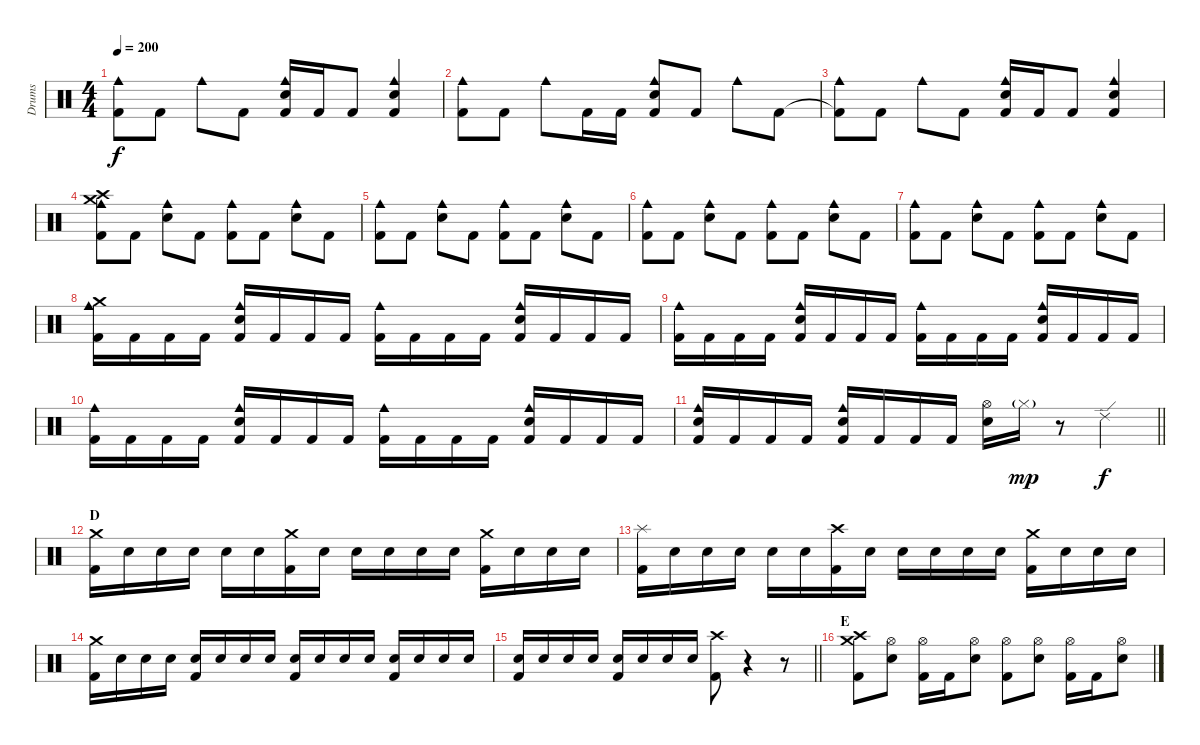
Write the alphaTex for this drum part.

\track ("Drums" "Drums") {instrument percussion}
\staff {score}
\articulation defaults
\ts (4 4)
\tempo 200
\clef neutral
\ks c
("Kick (hit) 2"{t} "Cowbell medium (hit)").8{dy f} "Kick (hit) 2".8 "Cowbell medium (hit)".8 "Kick (hit) 2".8 ("Electric Snare (hit)" "Kick (hit) 2" "Cowbell medium (hit)").16 "Kick (hit) 2".16 "Kick (hit) 2".8 ("Electric Snare (hit)" "Kick (hit) 2" "Cowbell medium (hit)").4 |
("Cowbell medium (hit)" "Kick (hit) 2").8 "Kick (hit) 2".8 "Cowbell medium (hit)".8 "Kick (hit) 2".16 "Kick (hit) 2".16 ("Electric Snare (hit)" "Kick (hit) 2" "Cowbell medium (hit)").8 "Kick (hit) 2".8 "Cowbell medium (hit)".8 "Kick (hit) 2".8 |
("Kick (hit) 2"{t} "Cowbell medium (hit)").8 "Kick (hit) 2".8 "Cowbell medium (hit)".8 "Kick (hit) 2".8 ("Electric Snare (hit)" "Kick (hit) 2" "Cowbell medium (hit)").16 "Kick (hit) 2".16 "Kick (hit) 2".8 ("Electric Snare (hit)" "Kick (hit) 2" "Cowbell medium (hit)").4 |
("Crash medium (hit)" "Crash high (hit)" "Kick (hit) 2" "Cowbell medium (hit)").8 "Kick (hit) 2".8 ("Electric Snare (hit)" "Cowbell medium (hit)").8 "Kick (hit) 2".8 ("Kick (hit) 2" "Cowbell medium (hit)").8 "Kick (hit) 2".8 ("Electric Snare (hit)" "Cowbell medium (hit)").8 "Kick (hit) 2".8 |
("Kick (hit) 2" "Cowbell medium (hit)").8 "Kick (hit) 2".8 ("Electric Snare (hit)" "Cowbell medium (hit)").8 "Kick (hit) 2".8 ("Kick (hit) 2" "Cowbell medium (hit)").8 "Kick (hit) 2".8 ("Electric Snare (hit)" "Cowbell medium (hit)").8 "Kick (hit) 2".8 |
("Kick (hit) 2" "Cowbell medium (hit)").8 "Kick (hit) 2".8 ("Electric Snare (hit)" "Cowbell medium (hit)").8 "Kick (hit) 2".8 ("Kick (hit) 2" "Cowbell medium (hit)").8 "Kick (hit) 2".8 ("Electric Snare (hit)" "Cowbell medium (hit)").8 "Kick (hit) 2".8 |
("Kick (hit) 2" "Cowbell medium (hit)").8 "Kick (hit) 2".8 ("Electric Snare (hit)" "Cowbell medium (hit)").8 "Kick (hit) 2".8 ("Kick (hit) 2" "Cowbell medium (hit)").8 "Kick (hit) 2".8 ("Electric Snare (hit)" "Cowbell medium (hit)").8 "Kick (hit) 2".8 |
("Crash medium (hit)" "Kick (hit) 2" "Cowbell medium (hit)").16 "Kick (hit) 2".16 "Kick (hit) 2".16 "Kick (hit) 2".16 ("Electric Snare (hit)" "Kick (hit) 2" "Cowbell medium (hit)").16 "Kick (hit) 2".16 "Kick (hit) 2".16 "Kick (hit) 2".16 ("Kick (hit) 2" "Cowbell medium (hit)").16 "Kick (hit) 2".16 "Kick (hit) 2".16 "Kick (hit) 2".16 ("Electric Snare (hit)" "Kick (hit) 2" "Cowbell medium (hit)").16 "Kick (hit) 2".16 "Kick (hit) 2".16 "Kick (hit) 2".16 |
("Kick (hit) 2" "Cowbell medium (hit)").16 "Kick (hit) 2".16 "Kick (hit) 2".16 "Kick (hit) 2".16 ("Electric Snare (hit)" "Kick (hit) 2" "Cowbell medium (hit)").16 "Kick (hit) 2".16 "Kick (hit) 2".16 "Kick (hit) 2".16 ("Kick (hit) 2" "Cowbell medium (hit)").16 "Kick (hit) 2".16 "Kick (hit) 2".16 "Kick (hit) 2".16 ("Electric Snare (hit)" "Kick (hit) 2" "Cowbell medium (hit)").16 "Kick (hit) 2".16 "Kick (hit) 2".16 "Kick (hit) 2".16 |
("Kick (hit) 2" "Cowbell medium (hit)").16 "Kick (hit) 2".16 "Kick (hit) 2".16 "Kick (hit) 2".16 ("Electric Snare (hit)" "Kick (hit) 2" "Cowbell medium (hit)").16 "Kick (hit) 2".16 "Kick (hit) 2".16 "Kick (hit) 2".16 ("Kick (hit) 2" "Cowbell medium (hit)").16 "Kick (hit) 2".16 "Kick (hit) 2".16 "Kick (hit) 2".16 ("Electric Snare (hit)" "Kick (hit) 2" "Cowbell medium (hit)").16 "Kick (hit) 2".16 "Kick (hit) 2".16 "Kick (hit) 2".16 |
\barLineRight lightlight
("Electric Snare (hit)" "Kick (hit) 2" "Cowbell medium (hit)").16 "Kick (hit) 2".16 "Kick (hit) 2".16 "Kick (hit) 2".16 ("Electric Snare (hit)" "Kick (hit) 2" "Cowbell medium (hit)").16 "Kick (hit) 2".16 "Kick (hit) 2".16 "Kick (hit) 2".16 ("Electric Snare (hit)" "Hi-Hat (open)").16 "Hi-Hat (closed)"{g}.16{dy mp} r.8 "Ride (edge) 2".4{dy f} |
\section ("" "D")
("Crash medium (hit)" "Kick (hit) 2").16 "Electric Snare (hit)".16 "Electric Snare (hit)".16 "Electric Snare (hit)".16 "Electric Snare (hit)".16 "Electric Snare (hit)".16 ("Crash medium (hit)" "Kick (hit) 2").16 "Electric Snare (hit)".16 "Electric Snare (hit)".16 "Electric Snare (hit)".16 "Electric Snare (hit)".16 "Electric Snare (hit)".16 ("Crash medium (hit)" "Kick (hit) 2").16 "Electric Snare (hit)".16 "Electric Snare (hit)".16 "Electric Snare (hit)".16 |
("Splash (hit)" "Kick (hit) 2").16 "Electric Snare (hit)".16 "Electric Snare (hit)".16 "Electric Snare (hit)".16 "Electric Snare (hit)".16 "Electric Snare (hit)".16 ("Crash high (hit)" "Kick (hit) 2").16 "Electric Snare (hit)".16 "Electric Snare (hit)".16 "Electric Snare (hit)".16 "Electric Snare (hit)".16 "Electric Snare (hit)".16 ("Crash medium (hit)" "Kick (hit) 2").16 "Electric Snare (hit)".16 "Electric Snare (hit)".16 "Electric Snare (hit)".16 |
("Crash medium (hit)" "Kick (hit) 2").16 "Electric Snare (hit)".16 "Electric Snare (hit)".16 "Electric Snare (hit)".16 ("Electric Snare (hit)" "Kick (hit) 2").16 "Electric Snare (hit)".16 "Electric Snare (hit)".16 "Electric Snare (hit)".16 ("Electric Snare (hit)" "Kick (hit) 2").16 "Electric Snare (hit)".16 "Electric Snare (hit)".16 "Electric Snare (hit)".16 ("Electric Snare (hit)" "Kick (hit) 2").16 "Electric Snare (hit)".16 "Electric Snare (hit)".16 "Electric Snare (hit)".16 |
\barLineRight lightlight
("Electric Snare (hit)" "Kick (hit) 2").16 "Electric Snare (hit)".16 "Electric Snare (hit)".16 "Electric Snare (hit)".16 ("Electric Snare (hit)" "Kick (hit) 2").16 "Electric Snare (hit)".16 "Electric Snare (hit)".16 "Electric Snare (hit)".16 ("Crash high (hit)" "Kick (hit) 2").8 r.4 r.8 |
\section ("" "E")
("Crash medium (hit)" "Crash high (hit)" "Kick (hit) 2").8 ("Hi-Hat (open)" "Electric Snare (hit)").8 ("Hi-Hat (open)" "Kick (hit) 2").16 "Kick (hit) 2".16 ("Hi-Hat (open)" "Electric Snare (hit)").8 ("Hi-Hat (open)" "Kick (hit) 2").8 ("Electric Snare (hit)" "Hi-Hat (open)").8 ("Hi-Hat (open)" "Kick (hit) 2").16 "Kick (hit) 2".16 ("Hi-Hat (open)" "Electric Snare (hit)").8
